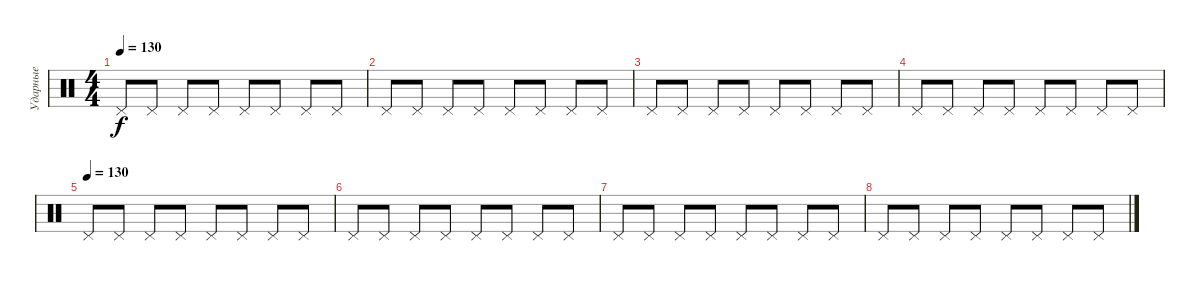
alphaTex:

\track ("Ударные" "Ударные") {instrument percussion}
\staff {score}
\articulation defaults
\ts (4 4)
\tempo 130
\clef neutral
\ks c "Pedal Hi-Hat (hit)".8{dy f} "Pedal Hi-Hat (hit)".8 "Pedal Hi-Hat (hit)".8 "Pedal Hi-Hat (hit)".8 "Pedal Hi-Hat (hit)".8 "Pedal Hi-Hat (hit)".8 "Pedal Hi-Hat (hit)".8 "Pedal Hi-Hat (hit)".8
|
"Pedal Hi-Hat (hit)".8 "Pedal Hi-Hat (hit)".8 "Pedal Hi-Hat (hit)".8 "Pedal Hi-Hat (hit)".8 "Pedal Hi-Hat (hit)".8 "Pedal Hi-Hat (hit)".8 "Pedal Hi-Hat (hit)".8 "Pedal Hi-Hat (hit)".8 |
"Pedal Hi-Hat (hit)".8 "Pedal Hi-Hat (hit)".8 "Pedal Hi-Hat (hit)".8 "Pedal Hi-Hat (hit)".8 "Pedal Hi-Hat (hit)".8 "Pedal Hi-Hat (hit)".8 "Pedal Hi-Hat (hit)".8 "Pedal Hi-Hat (hit)".8 |
"Pedal Hi-Hat (hit)".8 "Pedal Hi-Hat (hit)".8 "Pedal Hi-Hat (hit)".8 "Pedal Hi-Hat (hit)".8 "Pedal Hi-Hat (hit)".8 "Pedal Hi-Hat (hit)".8 "Pedal Hi-Hat (hit)".8 "Pedal Hi-Hat (hit)".8 |
\tempo (130)
"Pedal Hi-Hat (hit)".8 "Pedal Hi-Hat (hit)".8 "Pedal Hi-Hat (hit)".8 "Pedal Hi-Hat (hit)".8 "Pedal Hi-Hat (hit)".8 "Pedal Hi-Hat (hit)".8 "Pedal Hi-Hat (hit)".8 "Pedal Hi-Hat (hit)".8 |
"Pedal Hi-Hat (hit)".8 "Pedal Hi-Hat (hit)".8 "Pedal Hi-Hat (hit)".8 "Pedal Hi-Hat (hit)".8 "Pedal Hi-Hat (hit)".8 "Pedal Hi-Hat (hit)".8 "Pedal Hi-Hat (hit)".8 "Pedal Hi-Hat (hit)".8 |
"Pedal Hi-Hat (hit)".8 "Pedal Hi-Hat (hit)".8 "Pedal Hi-Hat (hit)".8 "Pedal Hi-Hat (hit)".8 "Pedal Hi-Hat (hit)".8 "Pedal Hi-Hat (hit)".8 "Pedal Hi-Hat (hit)".8 "Pedal Hi-Hat (hit)".8 |
"Pedal Hi-Hat (hit)".8 "Pedal Hi-Hat (hit)".8 "Pedal Hi-Hat (hit)".8 "Pedal Hi-Hat (hit)".8 "Pedal Hi-Hat (hit)".8 "Pedal Hi-Hat (hit)".8 "Pedal Hi-Hat (hit)".8 "Pedal Hi-Hat (hit)".8
